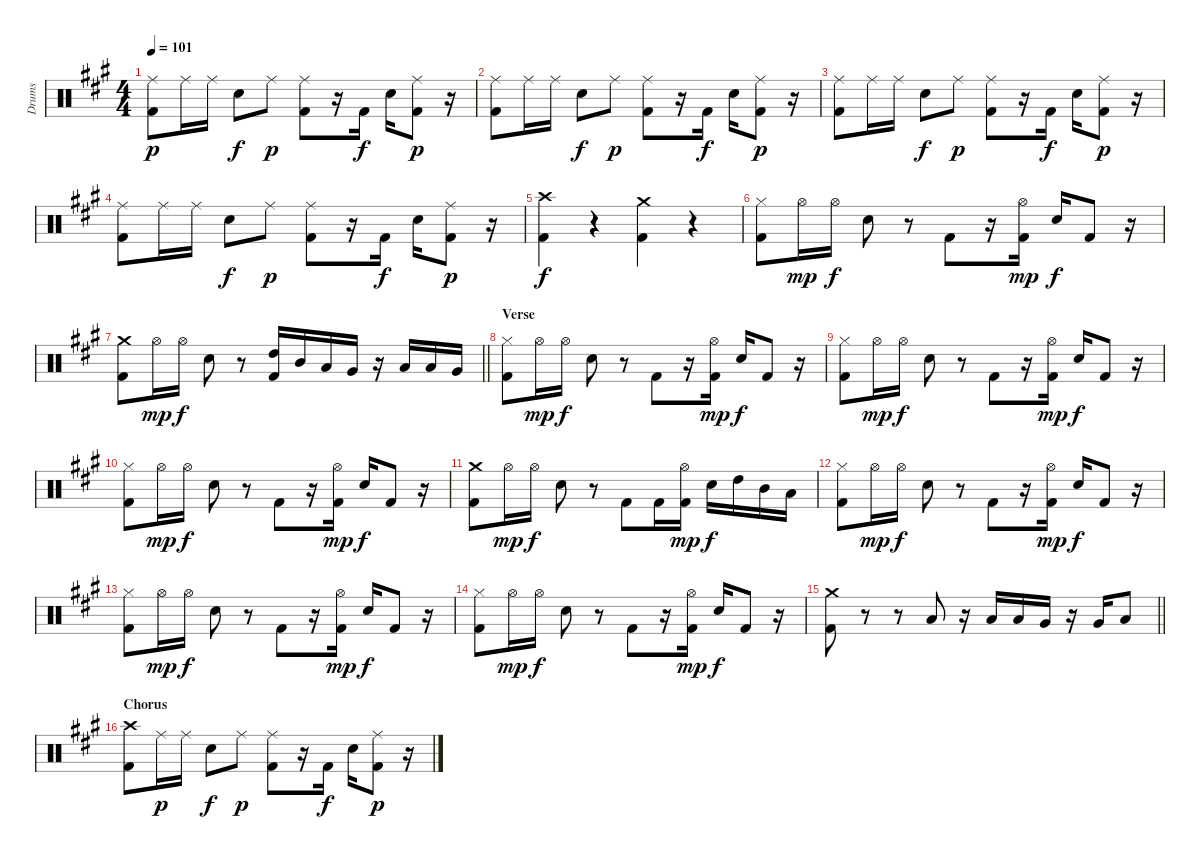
\track ("Drums" "Drums") {instrument percussion}
\staff {score}
\articulation defaults
\ts (4 4)
\tempo 101
\clef neutral
\ks a
("Ride (middle)" "Kick (hit) 2").8{dy p} "Ride (middle)".16 "Ride (middle)".16 "Electric Snare (hit)".8{dy f} "Ride (middle)".8{dy p} ("Ride (middle)" "Kick (hit) 2").8 r.16 "Kick (hit) 2".16{dy f} "Electric Snare (hit)".16 ("Ride (middle)" "Kick (hit) 2").8{dy p} r.16 |
("Ride (middle)" "Kick (hit) 2").8 "Ride (middle)".16 "Ride (middle)".16 "Electric Snare (hit)".8{dy f} "Ride (middle)".8{dy p} ("Ride (middle)" "Kick (hit) 2").8 r.16 "Kick (hit) 2".16{dy f} "Electric Snare (hit)".16 ("Ride (middle)" "Kick (hit) 2").8{dy p} r.16 |
("Ride (middle)" "Kick (hit) 2").8 "Ride (middle)".16 "Ride (middle)".16 "Electric Snare (hit)".8{dy f} "Ride (middle)".8{dy p} ("Ride (middle)" "Kick (hit) 2").8 r.16 "Kick (hit) 2".16{dy f} "Electric Snare (hit)".16 ("Ride (middle)" "Kick (hit) 2").8{dy p} r.16 |
("Ride (middle)" "Kick (hit) 2").8 "Ride (middle)".16 "Ride (middle)".16 "Electric Snare (hit)".8{dy f} "Ride (middle)".8{dy p} ("Ride (middle)" "Kick (hit) 2").8 r.16 "Kick (hit) 2".16{dy f} "Electric Snare (hit)".16 ("Ride (middle)" "Kick (hit) 2").8{dy p} r.16 |
("Crash high (hit)" "Kick (hit) 2").4{dy f} r.4 ("Crash medium (hit)" "Kick (hit) 2").4 r.4 |
("Hi-Hat (closed)" "Kick (hit) 2").8 "Hi-Hat (open)".16{dy mp} "Hi-Hat (open)".16{dy f} "Electric Snare (hit)".8 r.8 "Kick (hit) 2".8 r.16 ("Hi-Hat (open)" "Kick (hit) 2").16{dy mp} "Electric Snare (hit)".16{dy f} "Kick (hit) 2".8 r.16 |
\barLineRight lightlight
("Crash medium (hit)" "Kick (hit) 2").8 "Hi-Hat (open)".16{dy mp} "Hi-Hat (open)".16{dy f} "Electric Snare (hit)".8 r.8 ("High Tom (hit)" "Kick (hit) 2").16 "Mid Tom (hit)".16 "Low Tom (hit)".16 "Very Low Tom (hit)".16 r.16 "Low Tom (hit)".16 "Low Tom (hit)".16 "Very Low Tom (hit)".16 |
\section ("" "Verse")
("Hi-Hat (closed)" "Kick (hit) 2").8 "Hi-Hat (open)".16{dy mp} "Hi-Hat (open)".16{dy f} "Electric Snare (hit)".8 r.8 "Kick (hit) 2".8 r.16 ("Hi-Hat (open)" "Kick (hit) 2").16{dy mp} "Electric Snare (hit)".16{dy f} "Kick (hit) 2".8 r.16 |
("Hi-Hat (closed)" "Kick (hit) 2").8 "Hi-Hat (open)".16{dy mp} "Hi-Hat (open)".16{dy f} "Electric Snare (hit)".8 r.8 "Kick (hit) 2".8 r.16 ("Hi-Hat (open)" "Kick (hit) 2").16{dy mp} "Electric Snare (hit)".16{dy f} "Kick (hit) 2".8 r.16 |
("Hi-Hat (closed)" "Kick (hit) 2").8 "Hi-Hat (open)".16{dy mp} "Hi-Hat (open)".16{dy f} "Electric Snare (hit)".8 r.8 "Kick (hit) 2".8 r.16 ("Hi-Hat (open)" "Kick (hit) 2").16{dy mp} "Electric Snare (hit)".16{dy f} "Kick (hit) 2".8 r.16 |
("Crash medium (hit)" "Kick (hit) 2").8 "Hi-Hat (open)".16{dy mp} "Hi-Hat (open)".16{dy f} "Electric Snare (hit)".8 r.8 "Kick (hit) 2".8 "Kick (hit) 2".16 ("Hi-Hat (open)" "Kick (hit) 2").16{dy mp} "Electric Snare (hit)".16{dy f} "High Tom (hit)".16 "Mid Tom (hit)".16 "Low Tom (hit)".16 |
("Hi-Hat (closed)" "Kick (hit) 2").8 "Hi-Hat (open)".16{dy mp} "Hi-Hat (open)".16{dy f} "Electric Snare (hit)".8 r.8 "Kick (hit) 2".8 r.16 ("Hi-Hat (open)" "Kick (hit) 2").16{dy mp} "Electric Snare (hit)".16{dy f} "Kick (hit) 2".8 r.16 |
("Hi-Hat (closed)" "Kick (hit) 2").8 "Hi-Hat (open)".16{dy mp} "Hi-Hat (open)".16{dy f} "Electric Snare (hit)".8 r.8 "Kick (hit) 2".8 r.16 ("Hi-Hat (open)" "Kick (hit) 2").16{dy mp} "Electric Snare (hit)".16{dy f} "Kick (hit) 2".8 r.16 |
("Hi-Hat (closed)" "Kick (hit) 2").8 "Hi-Hat (open)".16{dy mp} "Hi-Hat (open)".16{dy f} "Electric Snare (hit)".8 r.8 "Kick (hit) 2".8 r.16 ("Hi-Hat (open)" "Kick (hit) 2").16{dy mp} "Electric Snare (hit)".16{dy f} "Kick (hit) 2".8 r.16 |
\barLineRight lightlight
("Crash medium (hit)" "Kick (hit) 2").8 r.8 r.8 "Low Tom (hit)".8 r.16 "Low Tom (hit)".16 "Low Tom (hit)".16 "Very Low Tom (hit)".16 r.16 "Very Low Tom (hit)".16 "Low Floor Tom (hit)".8 |
\section ("" "Chorus")
("Crash high (hit)" "Kick (hit) 2").8 "Ride (middle)".16{dy p} "Ride (middle)".16 "Electric Snare (hit)".8{dy f} "Ride (middle)".8{dy p} ("Ride (middle)" "Kick (hit) 2").8 r.16 "Kick (hit) 2".16{dy f} "Electric Snare (hit)".16 ("Ride (middle)" "Kick (hit) 2").8{dy p} r.16
